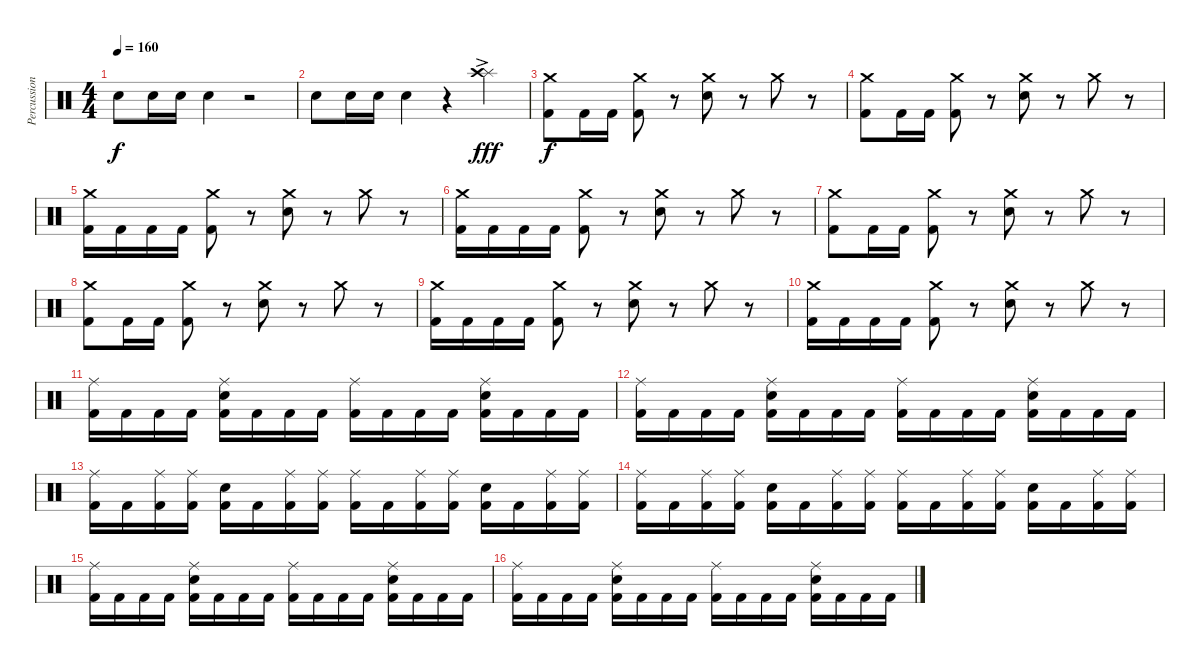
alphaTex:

\track ("Percussion" "Percussion") {instrument percussion}
\staff {score}
\articulation defaults
\ts (4 4)
\tempo 160
\clef neutral
\ks c "Electric Snare (hit)".8{dy f} "Electric Snare (hit)".16 "Electric Snare (hit)".16 "Electric Snare (hit)".4
r.2 |
"Electric Snare (hit)".8 "Electric Snare (hit)".16 "Electric Snare (hit)".16 "Electric Snare (hit)".4 r.4 ("Splash (hit)"{ac} "Crash high (hit)"{ac}).4{dy fff} |
("Kick (hit) 2" "Crash medium (hit)").8{dy f} "Kick (hit) 2".16 "Kick (hit) 2".16 ("Kick (hit) 2" "Crash medium (hit)").8 r.8 ("Electric Snare (hit)" "Crash medium (hit)").8 r.8 "Crash medium (hit)".8 r.8 |
("Kick (hit) 2" "Crash medium (hit)").8 "Kick (hit) 2".16 "Kick (hit) 2".16 ("Kick (hit) 2" "Crash medium (hit)").8 r.8 ("Electric Snare (hit)" "Crash medium (hit)").8 r.8 "Crash medium (hit)".8 r.8 |
("Kick (hit) 2" "Crash medium (hit)").16 "Kick (hit) 2".16 "Kick (hit) 2".16 "Kick (hit) 2".16 ("Kick (hit) 2" "Crash medium (hit)").8 r.8 ("Electric Snare (hit)" "Crash medium (hit)").8 r.8 "Crash medium (hit)".8 r.8 |
("Kick (hit) 2" "Crash medium (hit)").16 "Kick (hit) 2".16 "Kick (hit) 2".16 "Kick (hit) 2".16 ("Kick (hit) 2" "Crash medium (hit)").8 r.8 ("Electric Snare (hit)" "Crash medium (hit)").8 r.8 "Crash medium (hit)".8 r.8 |
("Kick (hit) 2" "Crash medium (hit)").8 "Kick (hit) 2".16 "Kick (hit) 2".16 ("Kick (hit) 2" "Crash medium (hit)").8 r.8 ("Electric Snare (hit)" "Crash medium (hit)").8 r.8 "Crash medium (hit)".8 r.8 |
("Kick (hit) 2" "Crash medium (hit)").8 "Kick (hit) 2".16 "Kick (hit) 2".16 ("Kick (hit) 2" "Crash medium (hit)").8 r.8 ("Electric Snare (hit)" "Crash medium (hit)").8 r.8 "Crash medium (hit)".8 r.8 |
("Kick (hit) 2" "Crash medium (hit)").16 "Kick (hit) 2".16 "Kick (hit) 2".16 "Kick (hit) 2".16 ("Kick (hit) 2" "Crash medium (hit)").8 r.8 ("Electric Snare (hit)" "Crash medium (hit)").8 r.8 "Crash medium (hit)".8 r.8 |
("Kick (hit) 2" "Crash medium (hit)").16 "Kick (hit) 2".16 "Kick (hit) 2".16 "Kick (hit) 2".16 ("Kick (hit) 2" "Crash medium (hit)").8 r.8 ("Electric Snare (hit)" "Crash medium (hit)").8 r.8 "Crash medium (hit)".8 r.8 |
("Kick (hit) 2" "Ride (middle)").16 "Kick (hit) 2".16 "Kick (hit) 2".16 "Kick (hit) 2".16 ("Kick (hit) 2" "Electric Snare (hit)" "Ride (middle)").16 "Kick (hit) 2".16 "Kick (hit) 2".16 "Kick (hit) 2".16 ("Kick (hit) 2" "Ride (middle)").16 "Kick (hit) 2".16 "Kick (hit) 2".16 "Kick (hit) 2".16 ("Kick (hit) 2" "Electric Snare (hit)" "Ride (middle)").16 "Kick (hit) 2".16 "Kick (hit) 2".16 "Kick (hit) 2".16 |
("Kick (hit) 2" "Ride (middle)").16 "Kick (hit) 2".16 "Kick (hit) 2".16 "Kick (hit) 2".16 ("Kick (hit) 2" "Electric Snare (hit)" "Ride (middle)").16 "Kick (hit) 2".16 "Kick (hit) 2".16 "Kick (hit) 2".16 ("Kick (hit) 2" "Ride (middle)").16 "Kick (hit) 2".16 "Kick (hit) 2".16 "Kick (hit) 2".16 ("Kick (hit) 2" "Electric Snare (hit)" "Ride (middle)").16 "Kick (hit) 2".16 "Kick (hit) 2".16 "Kick (hit) 2".16 |
("Kick (hit) 2" "Ride (middle)").16 "Kick (hit) 2".16 ("Kick (hit) 2" "Ride (middle)").16 ("Kick (hit) 2" "Ride (middle)").16 ("Kick (hit) 2" "Electric Snare (hit)").16 "Kick (hit) 2".16 ("Kick (hit) 2" "Ride (middle)").16 ("Kick (hit) 2" "Ride (middle)").16 ("Kick (hit) 2" "Ride (middle)").16 "Kick (hit) 2".16 ("Kick (hit) 2" "Ride (middle)").16 ("Kick (hit) 2" "Ride (middle)").16 ("Kick (hit) 2" "Electric Snare (hit)").16 "Kick (hit) 2".16 ("Kick (hit) 2" "Ride (middle)").16 ("Kick (hit) 2" "Ride (middle)").16 |
("Kick (hit) 2" "Ride (middle)").16 "Kick (hit) 2".16 ("Kick (hit) 2" "Ride (middle)").16 ("Kick (hit) 2" "Ride (middle)").16 ("Kick (hit) 2" "Electric Snare (hit)").16 "Kick (hit) 2".16 ("Kick (hit) 2" "Ride (middle)").16 ("Kick (hit) 2" "Ride (middle)").16 ("Kick (hit) 2" "Ride (middle)").16 "Kick (hit) 2".16 ("Kick (hit) 2" "Ride (middle)").16 ("Kick (hit) 2" "Ride (middle)").16 ("Kick (hit) 2" "Electric Snare (hit)").16 "Kick (hit) 2".16 ("Kick (hit) 2" "Ride (middle)").16 ("Kick (hit) 2" "Ride (middle)").16 |
("Kick (hit) 2" "Ride (middle)").16 "Kick (hit) 2".16 "Kick (hit) 2".16 "Kick (hit) 2".16 ("Kick (hit) 2" "Electric Snare (hit)" "Ride (middle)").16 "Kick (hit) 2".16 "Kick (hit) 2".16 "Kick (hit) 2".16 ("Kick (hit) 2" "Ride (middle)").16 "Kick (hit) 2".16 "Kick (hit) 2".16 "Kick (hit) 2".16 ("Kick (hit) 2" "Electric Snare (hit)" "Ride (middle)").16 "Kick (hit) 2".16 "Kick (hit) 2".16 "Kick (hit) 2".16 |
("Kick (hit) 2" "Ride (middle)").16 "Kick (hit) 2".16 "Kick (hit) 2".16 "Kick (hit) 2".16 ("Kick (hit) 2" "Electric Snare (hit)" "Ride (middle)").16 "Kick (hit) 2".16 "Kick (hit) 2".16 "Kick (hit) 2".16 ("Kick (hit) 2" "Ride (middle)").16 "Kick (hit) 2".16 "Kick (hit) 2".16 "Kick (hit) 2".16 ("Kick (hit) 2" "Electric Snare (hit)" "Ride (middle)").16 "Kick (hit) 2".16 "Kick (hit) 2".16 "Kick (hit) 2".16
